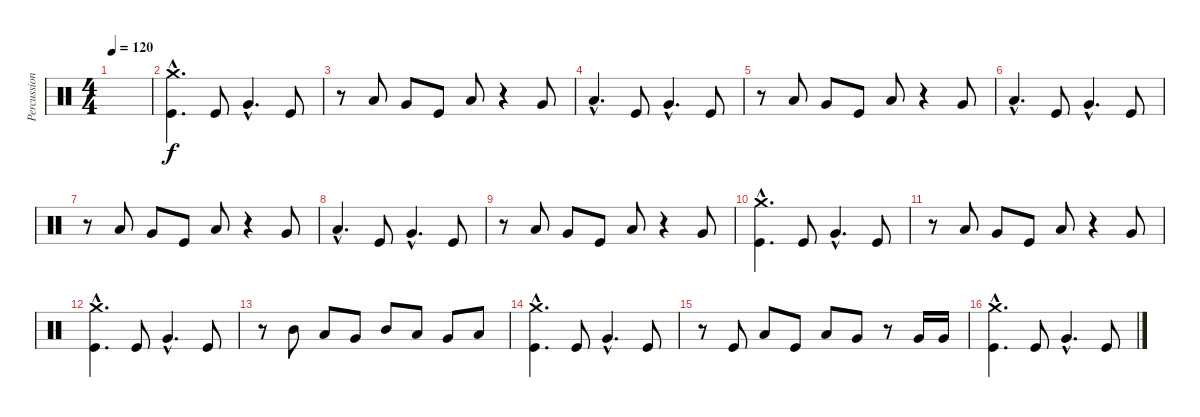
\track ("Percussions" "Percussion") {instrument percussion}
\staff {score}
\articulation defaults
\ts (4 4)
\tempo 120
\clef neutral
\ks c
|
("Kick (hit)"{hac} "Crash medium (hit)"{hac}).4{d} "Kick (hit)".8 "Very Low Tom (hit)"{hac}.4{d} "Kick (hit)".8 |
r.8 "Low Tom (hit)".8 "Very Low Tom (hit)".8 "Kick (hit)".8 "Low Floor Tom (hit)".8 r.4 "Very Low Tom (hit)".8 |
"Low Floor Tom (hit)"{hac}.4{d} "Kick (hit)".8 "Very Low Tom (hit)"{hac}.4{d} "Kick (hit)".8 |
r.8 "Low Tom (hit)".8 "Very Low Tom (hit)".8 "Kick (hit)".8 "Low Floor Tom (hit)".8 r.4 "Very Low Tom (hit)".8 |
"Low Floor Tom (hit)"{hac}.4{d} "Kick (hit)".8 "Very Low Tom (hit)"{hac}.4{d} "Kick (hit)".8 |
r.8 "Low Tom (hit)".8 "Very Low Tom (hit)".8 "Kick (hit)".8 "Low Floor Tom (hit)".8 r.4 "Very Low Tom (hit)".8 |
"Low Floor Tom (hit)"{hac}.4{d} "Kick (hit)".8 "Very Low Tom (hit)"{hac}.4{d} "Kick (hit)".8 |
r.8 "Low Tom (hit)".8 "Very Low Tom (hit)".8 "Kick (hit)".8 "Low Floor Tom (hit)".8 r.4 "Very Low Tom (hit)".8 |
("Kick (hit)"{hac} "Crash medium (hit)"{hac}).4{d} "Kick (hit)".8 "Very Low Tom (hit)"{hac}.4{d} "Kick (hit)".8 |
r.8 "Low Tom (hit)".8 "Very Low Tom (hit)".8 "Kick (hit)".8 "Low Floor Tom (hit)".8 r.4 "Very Low Tom (hit)".8 |
("Kick (hit)"{hac} "Crash medium (hit)"{hac}).4{d} "Kick (hit)".8 "Very Low Tom (hit)"{hac}.4{d} "Kick (hit)".8 |
r.8 "Mid Tom (hit)".8 "Low Tom (hit)".8 "Very Low Tom (hit)".8 "Mid Tom (hit)".8 "Low Tom (hit)".8 "Very Low Tom (hit)".8 "Low Floor Tom (hit)".8 |
("Kick (hit)"{hac} "Crash medium (hit)"{hac}).4{d} "Kick (hit)".8 "Very Low Tom (hit)"{hac}.4{d} "Kick (hit)".8 |
r.8 "Kick (hit)".8 "Low Tom (hit)".8 "Kick (hit)".8 "Low Tom (hit)".8 "Very Low Tom (hit)".8 r.8 "Very Low Tom (hit)".16 "Very Low Tom (hit)".16 |
("Kick (hit)"{hac} "Crash medium (hit)"{hac}).4{d} "Kick (hit)".8 "Very Low Tom (hit)"{hac}.4{d} "Kick (hit)".8
